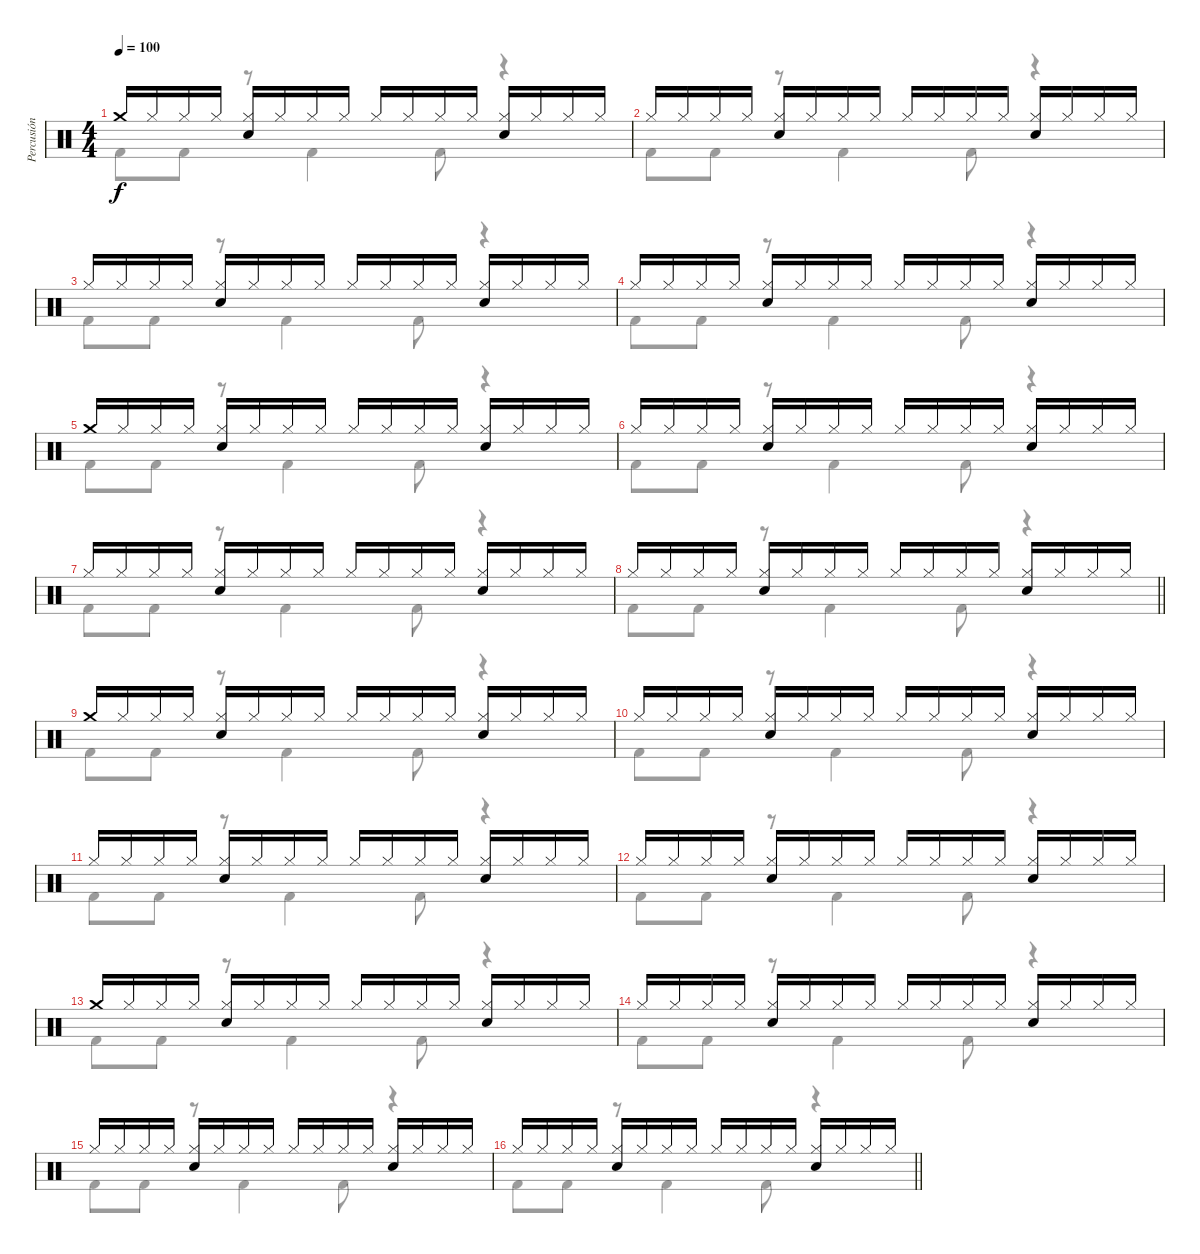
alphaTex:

\track ("Percusión" "Percusión") {instrument percussion}
\staff {score}
\articulation defaults
\voice
\ts (4 4)
\tempo 100
\clef neutral
\ks c "Crash medium (hit)".16{dy f} "Hi-Hat (closed)".16 "Hi-Hat (closed)".16 "Hi-Hat (closed)".16
("Hi-Hat (closed)" "Snare (hit) 2").16 "Hi-Hat (closed)".16 "Hi-Hat (closed)".16 "Hi-Hat (closed)".16 "Hi-Hat (closed)".16 "Hi-Hat (closed)".16 "Hi-Hat (closed)".16 "Hi-Hat (closed)".16 ("Hi-Hat (closed)" "Snare (hit) 2").16 "Hi-Hat (closed)".16 "Hi-Hat (closed)".16 "Hi-Hat (closed)".16 |
"Hi-Hat (closed)".16 "Hi-Hat (closed)".16 "Hi-Hat (closed)".16 "Hi-Hat (closed)".16 ("Hi-Hat (closed)" "Snare (hit) 2").16 "Hi-Hat (closed)".16 "Hi-Hat (closed)".16 "Hi-Hat (closed)".16 "Hi-Hat (closed)".16 "Hi-Hat (closed)".16 "Hi-Hat (closed)".16 "Hi-Hat (closed)".16 ("Hi-Hat (closed)" "Snare (hit) 2").16 "Hi-Hat (closed)".16 "Hi-Hat (closed)".16 "Hi-Hat (closed)".16 |
"Hi-Hat (closed)".16 "Hi-Hat (closed)".16 "Hi-Hat (closed)".16 "Hi-Hat (closed)".16 ("Hi-Hat (closed)" "Snare (hit) 2").16 "Hi-Hat (closed)".16 "Hi-Hat (closed)".16 "Hi-Hat (closed)".16 "Hi-Hat (closed)".16 "Hi-Hat (closed)".16 "Hi-Hat (closed)".16 "Hi-Hat (closed)".16 ("Hi-Hat (closed)" "Snare (hit) 2").16 "Hi-Hat (closed)".16 "Hi-Hat (closed)".16 "Hi-Hat (closed)".16 |
"Hi-Hat (closed)".16 "Hi-Hat (closed)".16 "Hi-Hat (closed)".16 "Hi-Hat (closed)".16 ("Hi-Hat (closed)" "Snare (hit) 2").16 "Hi-Hat (closed)".16 "Hi-Hat (closed)".16 "Hi-Hat (closed)".16 "Hi-Hat (closed)".16 "Hi-Hat (closed)".16 "Hi-Hat (closed)".16 "Hi-Hat (closed)".16 ("Hi-Hat (closed)" "Snare (hit) 2").16 "Hi-Hat (closed)".16 "Hi-Hat (closed)".16 "Hi-Hat (closed)".16 |
"Crash medium (hit)".16 "Hi-Hat (closed)".16 "Hi-Hat (closed)".16 "Hi-Hat (closed)".16 ("Hi-Hat (closed)" "Snare (hit) 2").16 "Hi-Hat (closed)".16 "Hi-Hat (closed)".16 "Hi-Hat (closed)".16 "Hi-Hat (closed)".16 "Hi-Hat (closed)".16 "Hi-Hat (closed)".16 "Hi-Hat (closed)".16 ("Hi-Hat (closed)" "Snare (hit) 2").16 "Hi-Hat (closed)".16 "Hi-Hat (closed)".16 "Hi-Hat (closed)".16 |
"Hi-Hat (closed)".16 "Hi-Hat (closed)".16 "Hi-Hat (closed)".16 "Hi-Hat (closed)".16 ("Hi-Hat (closed)" "Snare (hit) 2").16 "Hi-Hat (closed)".16 "Hi-Hat (closed)".16 "Hi-Hat (closed)".16 "Hi-Hat (closed)".16 "Hi-Hat (closed)".16 "Hi-Hat (closed)".16 "Hi-Hat (closed)".16 ("Hi-Hat (closed)" "Snare (hit) 2").16 "Hi-Hat (closed)".16 "Hi-Hat (closed)".16 "Hi-Hat (closed)".16 |
"Hi-Hat (closed)".16 "Hi-Hat (closed)".16 "Hi-Hat (closed)".16 "Hi-Hat (closed)".16 ("Hi-Hat (closed)" "Snare (hit) 2").16 "Hi-Hat (closed)".16 "Hi-Hat (closed)".16 "Hi-Hat (closed)".16 "Hi-Hat (closed)".16 "Hi-Hat (closed)".16 "Hi-Hat (closed)".16 "Hi-Hat (closed)".16 ("Hi-Hat (closed)" "Snare (hit) 2").16 "Hi-Hat (closed)".16 "Hi-Hat (closed)".16 "Hi-Hat (closed)".16 |
\barLineRight lightlight "Hi-Hat (closed)".16 "Hi-Hat (closed)".16 "Hi-Hat (closed)".16 "Hi-Hat (closed)".16
("Hi-Hat (closed)" "Snare (hit) 2").16 "Hi-Hat (closed)".16 "Hi-Hat (closed)".16 "Hi-Hat (closed)".16 "Hi-Hat (closed)".16 "Hi-Hat (closed)".16 "Hi-Hat (closed)".16 "Hi-Hat (closed)".16 ("Hi-Hat (closed)" "Snare (hit) 2").16 "Hi-Hat (closed)".16 "Hi-Hat (closed)".16 "Hi-Hat (closed)".16 |
"Crash medium (hit)".16 "Hi-Hat (closed)".16 "Hi-Hat (closed)".16 "Hi-Hat (closed)".16 ("Hi-Hat (closed)" "Snare (hit) 2").16 "Hi-Hat (closed)".16 "Hi-Hat (closed)".16 "Hi-Hat (closed)".16 "Hi-Hat (closed)".16 "Hi-Hat (closed)".16 "Hi-Hat (closed)".16 "Hi-Hat (closed)".16 ("Hi-Hat (closed)" "Snare (hit) 2").16 "Hi-Hat (closed)".16 "Hi-Hat (closed)".16 "Hi-Hat (closed)".16 |
"Hi-Hat (closed)".16 "Hi-Hat (closed)".16 "Hi-Hat (closed)".16 "Hi-Hat (closed)".16 ("Hi-Hat (closed)" "Snare (hit) 2").16 "Hi-Hat (closed)".16 "Hi-Hat (closed)".16 "Hi-Hat (closed)".16 "Hi-Hat (closed)".16 "Hi-Hat (closed)".16 "Hi-Hat (closed)".16 "Hi-Hat (closed)".16 ("Hi-Hat (closed)" "Snare (hit) 2").16 "Hi-Hat (closed)".16 "Hi-Hat (closed)".16 "Hi-Hat (closed)".16 |
"Hi-Hat (closed)".16 "Hi-Hat (closed)".16 "Hi-Hat (closed)".16 "Hi-Hat (closed)".16 ("Hi-Hat (closed)" "Snare (hit) 2").16 "Hi-Hat (closed)".16 "Hi-Hat (closed)".16 "Hi-Hat (closed)".16 "Hi-Hat (closed)".16 "Hi-Hat (closed)".16 "Hi-Hat (closed)".16 "Hi-Hat (closed)".16 ("Hi-Hat (closed)" "Snare (hit) 2").16 "Hi-Hat (closed)".16 "Hi-Hat (closed)".16 "Hi-Hat (closed)".16 |
"Hi-Hat (closed)".16 "Hi-Hat (closed)".16 "Hi-Hat (closed)".16 "Hi-Hat (closed)".16 ("Hi-Hat (closed)" "Snare (hit) 2").16 "Hi-Hat (closed)".16 "Hi-Hat (closed)".16 "Hi-Hat (closed)".16 "Hi-Hat (closed)".16 "Hi-Hat (closed)".16 "Hi-Hat (closed)".16 "Hi-Hat (closed)".16 ("Hi-Hat (closed)" "Snare (hit) 2").16 "Hi-Hat (closed)".16 "Hi-Hat (closed)".16 "Hi-Hat (closed)".16 |
"Crash medium (hit)".16 "Hi-Hat (closed)".16 "Hi-Hat (closed)".16 "Hi-Hat (closed)".16 ("Hi-Hat (closed)" "Snare (hit) 2").16 "Hi-Hat (closed)".16 "Hi-Hat (closed)".16 "Hi-Hat (closed)".16 "Hi-Hat (closed)".16 "Hi-Hat (closed)".16 "Hi-Hat (closed)".16 "Hi-Hat (closed)".16 ("Hi-Hat (closed)" "Snare (hit) 2").16 "Hi-Hat (closed)".16 "Hi-Hat (closed)".16 "Hi-Hat (closed)".16 |
"Hi-Hat (closed)".16 "Hi-Hat (closed)".16 "Hi-Hat (closed)".16 "Hi-Hat (closed)".16 ("Hi-Hat (closed)" "Snare (hit) 2").16 "Hi-Hat (closed)".16 "Hi-Hat (closed)".16 "Hi-Hat (closed)".16 "Hi-Hat (closed)".16 "Hi-Hat (closed)".16 "Hi-Hat (closed)".16 "Hi-Hat (closed)".16 ("Hi-Hat (closed)" "Snare (hit) 2").16 "Hi-Hat (closed)".16 "Hi-Hat (closed)".16 "Hi-Hat (closed)".16 |
"Hi-Hat (closed)".16 "Hi-Hat (closed)".16 "Hi-Hat (closed)".16 "Hi-Hat (closed)".16 ("Hi-Hat (closed)" "Snare (hit) 2").16 "Hi-Hat (closed)".16 "Hi-Hat (closed)".16 "Hi-Hat (closed)".16 "Hi-Hat (closed)".16 "Hi-Hat (closed)".16 "Hi-Hat (closed)".16 "Hi-Hat (closed)".16 ("Hi-Hat (closed)" "Snare (hit) 2").16 "Hi-Hat (closed)".16 "Hi-Hat (closed)".16 "Hi-Hat (closed)".16 |
\barLineRight lightlight "Hi-Hat (closed)".16 "Hi-Hat (closed)".16 "Hi-Hat (closed)".16 "Hi-Hat (closed)".16
("Hi-Hat (closed)" "Snare (hit) 2").16 "Hi-Hat (closed)".16 "Hi-Hat (closed)".16 "Hi-Hat (closed)".16 "Hi-Hat (closed)".16 "Hi-Hat (closed)".16 "Hi-Hat (closed)".16 "Hi-Hat (closed)".16 ("Hi-Hat (closed)" "Snare (hit) 2").16 "Hi-Hat (closed)".16 "Hi-Hat (closed)".16 "Hi-Hat (closed)".16
\voice
\clef neutral
\ottava regular
\simile none
\ks c "Kick (hit) 2".8{dy f} "Kick (hit) 2".8
r.8 "Kick (hit) 2".4 "Kick (hit) 2".8 r.4 |
"Kick (hit) 2".8 "Kick (hit) 2".8 r.8 "Kick (hit) 2".4 "Kick (hit) 2".8 r.4 |
"Kick (hit) 2".8 "Kick (hit) 2".8 r.8 "Kick (hit) 2".4 "Kick (hit) 2".8 r.4 |
"Kick (hit) 2".8 "Kick (hit) 2".8 r.8 "Kick (hit) 2".4 "Kick (hit) 2".8 r.4 |
"Kick (hit) 2".8 "Kick (hit) 2".8 r.8 "Kick (hit) 2".4 "Kick (hit) 2".8 r.4 |
"Kick (hit) 2".8 "Kick (hit) 2".8 r.8 "Kick (hit) 2".4 "Kick (hit) 2".8 r.4 |
"Kick (hit) 2".8 "Kick (hit) 2".8 r.8 "Kick (hit) 2".4 "Kick (hit) 2".8 r.4 |
\barLineRight lightlight "Kick (hit) 2".8 "Kick (hit) 2".8
r.8 "Kick (hit) 2".4 "Kick (hit) 2".8 r.4 |
"Kick (hit) 2".8 "Kick (hit) 2".8 r.8 "Kick (hit) 2".4 "Kick (hit) 2".8 r.4 |
"Kick (hit) 2".8 "Kick (hit) 2".8 r.8 "Kick (hit) 2".4 "Kick (hit) 2".8 r.4 |
"Kick (hit) 2".8 "Kick (hit) 2".8 r.8 "Kick (hit) 2".4 "Kick (hit) 2".8 r.4 |
"Kick (hit) 2".8 "Kick (hit) 2".8 r.8 "Kick (hit) 2".4 "Kick (hit) 2".8 r.4 |
"Kick (hit) 2".8 "Kick (hit) 2".8 r.8 "Kick (hit) 2".4 "Kick (hit) 2".8 r.4 |
"Kick (hit) 2".8 "Kick (hit) 2".8 r.8 "Kick (hit) 2".4 "Kick (hit) 2".8 r.4 |
"Kick (hit) 2".8 "Kick (hit) 2".8 r.8 "Kick (hit) 2".4 "Kick (hit) 2".8 r.4 |
\barLineRight lightlight "Kick (hit) 2".8 "Kick (hit) 2".8
r.8 "Kick (hit) 2".4 "Kick (hit) 2".8 r.4
